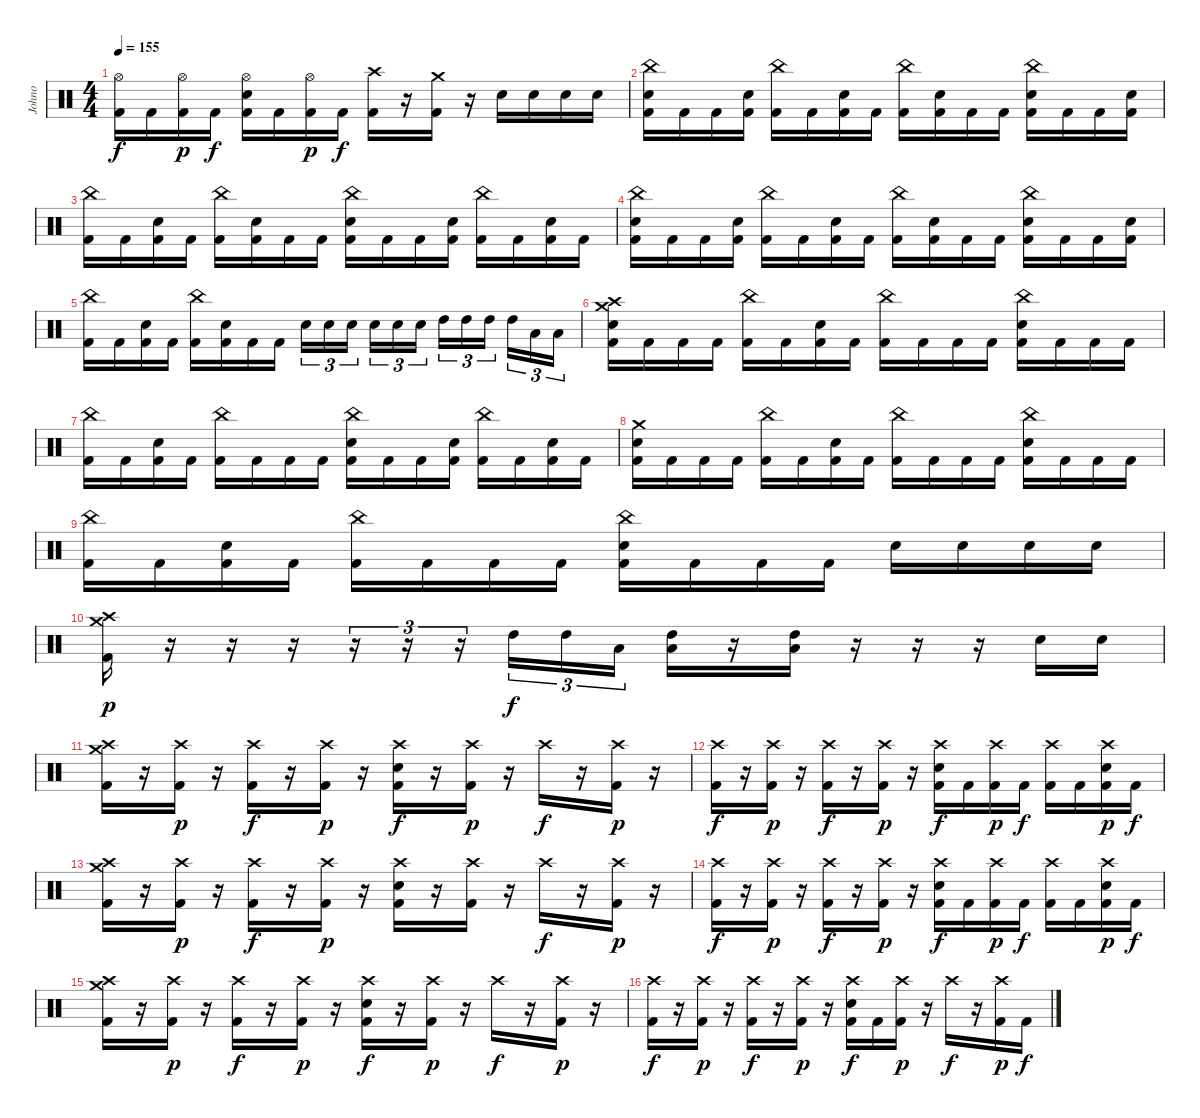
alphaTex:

\track ("Johno" "Johno") {instrument percussion}
\staff {score}
\articulation defaults
\ts (4 4)
\tempo 155
\clef neutral
\ks c
("Hi-Hat (open)" "Kick (hit) 2").16{dy f} "Kick (hit) 2".16 ("Hi-Hat (open)" "Kick (hit) 2").16{dy p} "Kick (hit) 2".16{dy f} ("Hi-Hat (open)" "Electric Snare (hit)" "Kick (hit) 2").16 "Kick (hit) 2".16 ("Hi-Hat (open)" "Kick (hit) 2").16{dy p} "Kick (hit) 2".16{dy f} ("Crash high (hit)" "Kick (hit) 2").16 r.16 ("Crash medium (hit)" "Kick (hit) 2").16 r.16 "Electric Snare (hit)".16 "Electric Snare (hit)".16 "Electric Snare (hit)".16 "Electric Snare (hit)".16 |
("China (hit)" "Electric Snare (hit)" "Kick (hit) 2").16 "Kick (hit) 2".16 "Kick (hit) 2".16 ("Electric Snare (hit)" "Kick (hit) 2").16 ("China (hit)" "Kick (hit) 2").16 "Kick (hit) 2".16 ("Electric Snare (hit)" "Kick (hit) 2").16 "Kick (hit) 2".16 ("China (hit)" "Kick (hit) 2").16 ("Electric Snare (hit)" "Kick (hit) 2").16 "Kick (hit) 2".16 "Kick (hit) 2".16 ("China (hit)" "Electric Snare (hit)" "Kick (hit) 2").16 "Kick (hit) 2".16 "Kick (hit) 2".16 ("Electric Snare (hit)" "Kick (hit) 2").16 |
("China (hit)" "Kick (hit) 2").16 "Kick (hit) 2".16 ("Electric Snare (hit)" "Kick (hit) 2").16 "Kick (hit) 2".16 ("China (hit)" "Kick (hit) 2").16 ("Electric Snare (hit)" "Kick (hit) 2").16 "Kick (hit) 2".16 "Kick (hit) 2".16 ("China (hit)" "Electric Snare (hit)" "Kick (hit) 2").16 "Kick (hit) 2".16 "Kick (hit) 2".16 ("Electric Snare (hit)" "Kick (hit) 2").16 ("China (hit)" "Kick (hit) 2").16 "Kick (hit) 2".16 ("Electric Snare (hit)" "Kick (hit) 2").16 "Kick (hit) 2".16 |
("China (hit)" "Electric Snare (hit)" "Kick (hit) 2").16 "Kick (hit) 2".16 "Kick (hit) 2".16 ("Electric Snare (hit)" "Kick (hit) 2").16 ("China (hit)" "Kick (hit) 2").16 "Kick (hit) 2".16 ("Electric Snare (hit)" "Kick (hit) 2").16 "Kick (hit) 2".16 ("China (hit)" "Kick (hit) 2").16 ("Electric Snare (hit)" "Kick (hit) 2").16 "Kick (hit) 2".16 "Kick (hit) 2".16 ("China (hit)" "Electric Snare (hit)" "Kick (hit) 2").16 "Kick (hit) 2".16 "Kick (hit) 2".16 ("Electric Snare (hit)" "Kick (hit) 2").16 |
("China (hit)" "Kick (hit) 2").16 "Kick (hit) 2".16 ("Electric Snare (hit)" "Kick (hit) 2").16 "Kick (hit) 2".16 ("China (hit)" "Kick (hit) 2").16 ("Electric Snare (hit)" "Kick (hit) 2").16 "Kick (hit) 2".16 "Kick (hit) 2".16 "Electric Snare (hit)".16{tu (3 2)} "Electric Snare (hit)".16{tu (3 2)} "Electric Snare (hit)".16{tu (3 2) beam splitsecondary} "Electric Snare (hit)".16{tu (3 2)} "Electric Snare (hit)".16{tu (3 2)} "Electric Snare (hit)".16{tu (3 2)} "High Tom (hit)".16{tu (3 2)} "High Tom (hit)".16{tu (3 2)} "High Tom (hit)".16{tu (3 2) beam splitsecondary} "High Tom (hit)".16{tu (3 2)} "Low Floor Tom (hit)".16{tu (3 2)} "Low Floor Tom (hit)".16{tu (3 2)} |
("Crash medium (hit)" "Crash high (hit)" "Electric Snare (hit)" "Kick (hit) 2").16 "Kick (hit) 2".16 "Kick (hit) 2".16 "Kick (hit) 2".16 ("China (hit)" "Kick (hit) 2").16 "Kick (hit) 2".16 ("Electric Snare (hit)" "Kick (hit) 2").16 "Kick (hit) 2".16 ("China (hit)" "Kick (hit) 2").16 "Kick (hit) 2".16 "Kick (hit) 2".16 "Kick (hit) 2".16 ("China (hit)" "Electric Snare (hit)" "Kick (hit) 2").16 "Kick (hit) 2".16 "Kick (hit) 2".16 "Kick (hit) 2".16 |
("China (hit)" "Kick (hit) 2").16 "Kick (hit) 2".16 ("Electric Snare (hit)" "Kick (hit) 2").16 "Kick (hit) 2".16 ("China (hit)" "Kick (hit) 2").16 "Kick (hit) 2".16 "Kick (hit) 2".16 "Kick (hit) 2".16 ("China (hit)" "Electric Snare (hit)" "Kick (hit) 2").16 "Kick (hit) 2".16 "Kick (hit) 2".16 ("Electric Snare (hit)" "Kick (hit) 2").16 ("China (hit)" "Kick (hit) 2").16 "Kick (hit) 2".16 ("Electric Snare (hit)" "Kick (hit) 2").16 "Kick (hit) 2".16 |
("Crash medium (hit)" "Electric Snare (hit)" "Kick (hit) 2").16 "Kick (hit) 2".16 "Kick (hit) 2".16 "Kick (hit) 2".16 ("China (hit)" "Kick (hit) 2").16 "Kick (hit) 2".16 ("Electric Snare (hit)" "Kick (hit) 2").16 "Kick (hit) 2".16 ("China (hit)" "Kick (hit) 2").16 "Kick (hit) 2".16 "Kick (hit) 2".16 "Kick (hit) 2".16 ("China (hit)" "Electric Snare (hit)" "Kick (hit) 2").16 "Kick (hit) 2".16 "Kick (hit) 2".16 "Kick (hit) 2".16 |
("China (hit)" "Kick (hit) 2").16 "Kick (hit) 2".16 ("Electric Snare (hit)" "Kick (hit) 2").16 "Kick (hit) 2".16 ("China (hit)" "Kick (hit) 2").16 "Kick (hit) 2".16 "Kick (hit) 2".16 "Kick (hit) 2".16 ("China (hit)" "Electric Snare (hit)" "Kick (hit) 2").16 "Kick (hit) 2".16 "Kick (hit) 2".16 "Kick (hit) 2".16 "Electric Snare (hit)".16 "Electric Snare (hit)".16 "Electric Snare (hit)".16 "Electric Snare (hit)".16 |
("Crash medium (hit)" "Crash high (hit)" "Kick (hit) 2").16{dy p} r.16 r.16 r.16 r.16{tu (3 2)} r.16{tu (3 2)} r.16{tu (3 2)} "High Tom (hit)".16{tu (3 2) dy f} "High Tom (hit)".16{tu (3 2)} "Low Floor Tom (hit)".16{tu (3 2)} ("High Tom (hit)" "Low Floor Tom (hit)").16 r.16 ("High Tom (hit)" "Low Floor Tom (hit)").16 r.16 r.16 r.16 "Electric Snare (hit)".16 "Electric Snare (hit)".16 |
("Crash medium (hit)" "Crash high (hit)" "Kick (hit) 2").16 r.16 ("Crash high (hit)" "Kick (hit) 2").16{dy p} r.16 ("Crash high (hit)" "Kick (hit) 2").16{dy f} r.16 ("Crash high (hit)" "Kick (hit) 2").16{dy p} r.16 ("Crash high (hit)" "Electric Snare (hit)" "Kick (hit) 2").16{dy f} r.16 ("Crash high (hit)" "Kick (hit) 2").16{dy p} r.16 "Crash high (hit)".16{dy f} r.16 ("Crash high (hit)" "Kick (hit) 2").16{dy p} r.16 |
("Crash high (hit)" "Kick (hit) 2").16{dy f} r.16 ("Crash high (hit)" "Kick (hit) 2").16{dy p} r.16 ("Crash high (hit)" "Kick (hit) 2").16{dy f} r.16 ("Crash high (hit)" "Kick (hit) 2").16{dy p} r.16 ("Crash high (hit)" "Electric Snare (hit)" "Kick (hit) 2").16{dy f} "Kick (hit) 2".16 ("Crash high (hit)" "Kick (hit) 2").16{dy p} "Kick (hit) 2".16{dy f} ("Crash high (hit)" "Kick (hit) 2").16 "Kick (hit) 2".16 ("Crash high (hit)" "Electric Snare (hit)" "Kick (hit) 2").16{dy p} "Kick (hit) 2".16{dy f} |
("Crash medium (hit)" "Crash high (hit)" "Kick (hit) 2").16 r.16 ("Crash high (hit)" "Kick (hit) 2").16{dy p} r.16 ("Crash high (hit)" "Kick (hit) 2").16{dy f} r.16 ("Crash high (hit)" "Kick (hit) 2").16{dy p} r.16 ("Crash high (hit)" "Electric Snare (hit)" "Kick (hit) 2").16 r.16 ("Crash high (hit)" "Kick (hit) 2").16 r.16 "Crash high (hit)".16{dy f} r.16 ("Crash high (hit)" "Kick (hit) 2").16{dy p} r.16 |
("Crash high (hit)" "Kick (hit) 2").16{dy f} r.16 ("Crash high (hit)" "Kick (hit) 2").16{dy p} r.16 ("Crash high (hit)" "Kick (hit) 2").16{dy f} r.16 ("Crash high (hit)" "Kick (hit) 2").16{dy p} r.16 ("Crash high (hit)" "Electric Snare (hit)" "Kick (hit) 2").16{dy f} "Kick (hit) 2".16 ("Crash high (hit)" "Kick (hit) 2").16{dy p} "Kick (hit) 2".16{dy f} ("Crash high (hit)" "Kick (hit) 2").16 "Kick (hit) 2".16 ("Crash high (hit)" "Electric Snare (hit)" "Kick (hit) 2").16{dy p} "Kick (hit) 2".16{dy f} |
("Crash medium (hit)" "Crash high (hit)" "Kick (hit) 2").16 r.16 ("Crash high (hit)" "Kick (hit) 2").16{dy p} r.16 ("Crash high (hit)" "Kick (hit) 2").16{dy f} r.16 ("Crash high (hit)" "Kick (hit) 2").16{dy p} r.16 ("Crash high (hit)" "Electric Snare (hit)" "Kick (hit) 2").16{dy f} r.16 ("Crash high (hit)" "Kick (hit) 2").16{dy p} r.16 "Crash high (hit)".16{dy f} r.16 ("Crash high (hit)" "Kick (hit) 2").16{dy p} r.16 |
("Crash high (hit)" "Kick (hit) 2").16{dy f} r.16 ("Crash high (hit)" "Kick (hit) 2").16{dy p} r.16 ("Crash high (hit)" "Kick (hit) 2").16{dy f} r.16 ("Crash high (hit)" "Kick (hit) 2").16{dy p} r.16 ("Crash high (hit)" "Electric Snare (hit)" "Kick (hit) 2").16{dy f} "Kick (hit) 2".16 ("Crash high (hit)" "Kick (hit) 2").16{dy p} r.16 "Crash high (hit)".16{dy f} r.16 ("Crash high (hit)" "Kick (hit) 2").16{dy p} "Kick (hit) 2".16{dy f}
